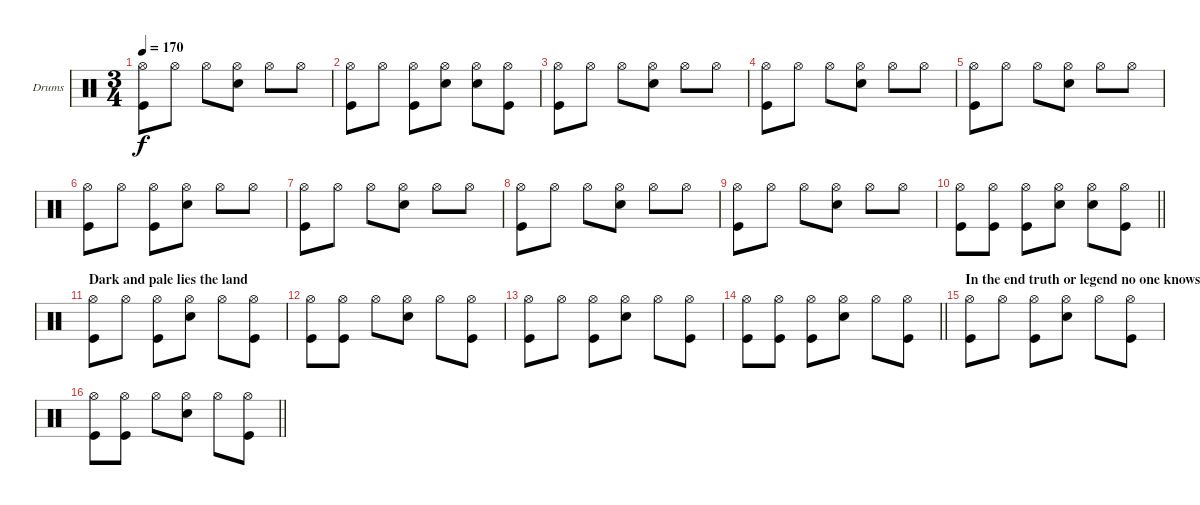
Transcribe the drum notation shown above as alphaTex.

\bracketExtendMode groupsimilarinstruments
\firstSystemTrackNameOrientation horizontal
\otherSystemsTrackNameOrientation horizontal
\track ("Drumkit" "Drums") {instrument percussion}
\staff {score}
\articulation defaults
\ts (3 4)
\tempo 170
\clef neutral
\ks c
("Hi-Hat (open)" "Kick (hit)").8{dy f} "Hi-Hat (open)".8 "Hi-Hat (open)".8 ("Hi-Hat (open)" "Snare (hit) 2").8 "Hi-Hat (open)".8 "Hi-Hat (open)".8 |
("Hi-Hat (open)" "Kick (hit)").8 "Hi-Hat (open)".8 ("Hi-Hat (open)" "Kick (hit)").8 ("Hi-Hat (open)" "Snare (hit) 2").8 ("Hi-Hat (open)" "Snare (hit) 2").8 ("Hi-Hat (open)" "Kick (hit)").8 |
("Hi-Hat (open)" "Kick (hit)").8 "Hi-Hat (open)".8 "Hi-Hat (open)".8 ("Hi-Hat (open)" "Snare (hit) 2").8 "Hi-Hat (open)".8 "Hi-Hat (open)".8 |
("Hi-Hat (open)" "Kick (hit)").8 "Hi-Hat (open)".8 "Hi-Hat (open)".8 ("Hi-Hat (open)" "Snare (hit) 2").8 "Hi-Hat (open)".8 "Hi-Hat (open)".8 |
("Hi-Hat (open)" "Kick (hit)").8 "Hi-Hat (open)".8 "Hi-Hat (open)".8 ("Hi-Hat (open)" "Snare (hit) 2").8 "Hi-Hat (open)".8 "Hi-Hat (open)".8 |
("Hi-Hat (open)" "Kick (hit)").8 "Hi-Hat (open)".8 ("Hi-Hat (open)" "Kick (hit)").8 ("Hi-Hat (open)" "Snare (hit) 2").8 "Hi-Hat (open)".8 "Hi-Hat (open)".8 |
("Hi-Hat (open)" "Kick (hit)").8 "Hi-Hat (open)".8 "Hi-Hat (open)".8 ("Hi-Hat (open)" "Snare (hit) 2").8 "Hi-Hat (open)".8 "Hi-Hat (open)".8 |
("Hi-Hat (open)" "Kick (hit)").8 "Hi-Hat (open)".8 "Hi-Hat (open)".8 ("Hi-Hat (open)" "Snare (hit) 2").8 "Hi-Hat (open)".8 "Hi-Hat (open)".8 |
("Hi-Hat (open)" "Kick (hit)").8 "Hi-Hat (open)".8 "Hi-Hat (open)".8 ("Hi-Hat (open)" "Snare (hit) 2").8 "Hi-Hat (open)".8 "Hi-Hat (open)".8 |
\barLineRight lightlight
("Hi-Hat (open)" "Kick (hit)").8 ("Hi-Hat (open)" "Kick (hit)").8 ("Hi-Hat (open)" "Kick (hit)").8 ("Hi-Hat (open)" "Snare (hit) 2").8 ("Hi-Hat (open)" "Snare (hit) 2").8 ("Hi-Hat (open)" "Kick (hit)").8 |
\section ("" "Dark and pale lies the land")
("Hi-Hat (open)" "Kick (hit)").8 "Hi-Hat (open)".8 ("Hi-Hat (open)" "Kick (hit)").8 ("Hi-Hat (open)" "Snare (hit) 2").8 "Hi-Hat (open)".8 ("Hi-Hat (open)" "Kick (hit)").8 |
("Hi-Hat (open)" "Kick (hit)").8 ("Hi-Hat (open)" "Kick (hit)").8 "Hi-Hat (open)".8 ("Hi-Hat (open)" "Snare (hit) 2").8 "Hi-Hat (open)".8 ("Hi-Hat (open)" "Kick (hit)").8 |
("Hi-Hat (open)" "Kick (hit)").8 "Hi-Hat (open)".8 ("Hi-Hat (open)" "Kick (hit)").8 ("Hi-Hat (open)" "Snare (hit) 2").8 "Hi-Hat (open)".8 ("Hi-Hat (open)" "Kick (hit)").8 |
\barLineRight lightlight
("Hi-Hat (open)" "Kick (hit)").8 ("Hi-Hat (open)" "Kick (hit)").8 ("Hi-Hat (open)" "Kick (hit)").8 ("Hi-Hat (open)" "Snare (hit) 2").8 "Hi-Hat (open)".8 ("Hi-Hat (open)" "Kick (hit)").8 |
\section ("" "In the end truth or legend no one knows")
("Hi-Hat (open)" "Kick (hit)").8 "Hi-Hat (open)".8 ("Hi-Hat (open)" "Kick (hit)").8 ("Hi-Hat (open)" "Snare (hit) 2").8 "Hi-Hat (open)".8 ("Hi-Hat (open)" "Kick (hit)").8 |
\barLineRight lightlight
("Hi-Hat (open)" "Kick (hit)").8 ("Hi-Hat (open)" "Kick (hit)").8 "Hi-Hat (open)".8 ("Hi-Hat (open)" "Snare (hit) 2").8 "Hi-Hat (open)".8 ("Hi-Hat (open)" "Kick (hit)").8
